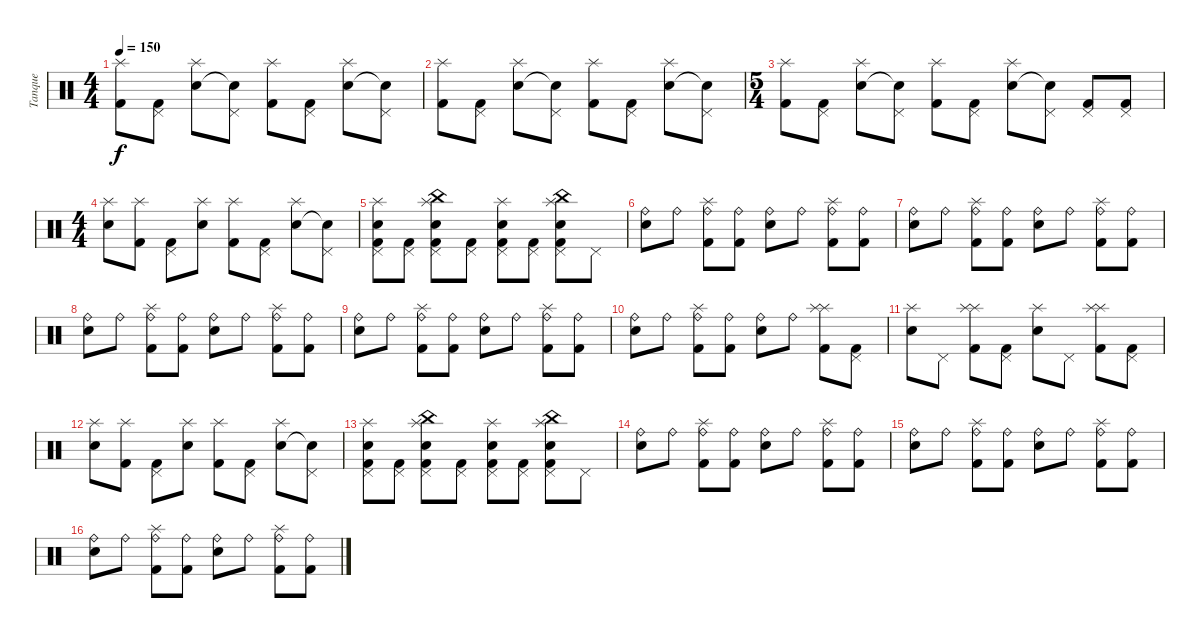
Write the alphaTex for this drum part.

\track ("Tanque" "Tanque") {instrument percussion}
\staff {score}
\articulation defaults
\ts (4 4)
\tempo 150
\clef neutral
\ks c
("Splash (hit)" "Kick (hit) 2").8{dy f} ("Pedal Hi-Hat (hit)" "Kick (hit) 2").8 ("Splash (hit)" "Snare (hit) 2").8 ("Pedal Hi-Hat (hit)" "Snare (hit)"{t}).8 ("Splash (hit)" "Kick (hit) 2").8 ("Pedal Hi-Hat (hit)" "Kick (hit) 2").8 ("Splash (hit)" "Snare (hit) 2").8 ("Pedal Hi-Hat (hit)" "Snare (hit)"{t}).8 |
("Splash (hit)" "Kick (hit) 2").8 ("Pedal Hi-Hat (hit)" "Kick (hit) 2").8 ("Splash (hit)" "Snare (hit) 2").8 ("Pedal Hi-Hat (hit)" "Snare (hit)"{t}).8 ("Splash (hit)" "Kick (hit) 2").8 ("Pedal Hi-Hat (hit)" "Kick (hit) 2").8 ("Splash (hit)" "Snare (hit) 2").8 ("Pedal Hi-Hat (hit)" "Snare (hit)"{t}).8 |
\ts (5 4)
("Splash (hit)" "Kick (hit) 2").8 ("Pedal Hi-Hat (hit)" "Kick (hit) 2").8 ("Splash (hit)" "Snare (hit) 2").8 ("Pedal Hi-Hat (hit)" "Snare (hit)"{t}).8 ("Splash (hit)" "Kick (hit) 2").8 ("Pedal Hi-Hat (hit)" "Kick (hit) 2").8 ("Splash (hit)" "Snare (hit) 2").8 ("Pedal Hi-Hat (hit)" "Snare (hit)"{t}).8 ("Pedal Hi-Hat (hit)" "Kick (hit) 2").8 ("Pedal Hi-Hat (hit)" "Kick (hit) 2").8 |
\ts (4 4)
("Splash (hit)" "Snare (hit) 2").8 ("Splash (hit)" "Kick (hit) 2").8 ("Pedal Hi-Hat (hit)" "Kick (hit) 2").8 ("Splash (hit)" "Snare (hit) 2").8 ("Splash (hit)" "Kick (hit) 2").8 ("Pedal Hi-Hat (hit)" "Kick (hit) 2").8 ("Splash (hit)" "Snare (hit) 2").8 ("Pedal Hi-Hat (hit)" "Snare (hit) 2"{t}).8 |
("Pedal Hi-Hat (hit)" "Kick (hit) 2" "Snare (hit) 2" "Splash (hit)").8 ("Pedal Hi-Hat (hit)" "Kick (hit) 2").8 ("Pedal Hi-Hat (hit)" "Kick (hit) 2" "Snare (hit) 2" "Splash (hit)" "China (hit)").8 ("Pedal Hi-Hat (hit)" "Kick (hit) 2").8 ("Pedal Hi-Hat (hit)" "Kick (hit) 2" "Snare (hit) 2" "Splash (hit)").8 ("Pedal Hi-Hat (hit)" "Kick (hit) 2").8 ("Pedal Hi-Hat (hit)" "Kick (hit) 2" "Snare (hit) 2" "Splash (hit)" "China (hit)").8 "Pedal Hi-Hat (hit)".8 |
("Ride (bell)" "Snare (hit) 2").8 "Ride (bell)".8 ("Ride (bell)" "Kick (hit) 2" "Splash (hit)").8 ("Ride (bell)" "Kick (hit) 2").8 ("Ride (bell)" "Snare (hit) 2").8 "Ride (bell)".8 ("Ride (bell)" "Kick (hit) 2" "Splash (hit)").8 ("Ride (bell)" "Kick (hit) 2").8 |
("Ride (bell)" "Snare (hit) 2").8 "Ride (bell)".8 ("Ride (bell)" "Kick (hit) 2" "Splash (hit)").8 ("Ride (bell)" "Kick (hit) 2").8 ("Ride (bell)" "Snare (hit) 2").8 "Ride (bell)".8 ("Ride (bell)" "Kick (hit) 2" "Splash (hit)").8 ("Ride (bell)" "Kick (hit) 2").8 |
("Ride (bell)" "Snare (hit) 2").8 "Ride (bell)".8 ("Ride (bell)" "Kick (hit) 2" "Splash (hit)").8 ("Ride (bell)" "Kick (hit) 2").8 ("Ride (bell)" "Snare (hit) 2").8 "Ride (bell)".8 ("Ride (bell)" "Kick (hit) 2" "Splash (hit)").8 ("Ride (bell)" "Kick (hit) 2").8 |
("Ride (bell)" "Snare (hit) 2").8 "Ride (bell)".8 ("Ride (bell)" "Kick (hit) 2" "Splash (hit)").8 ("Ride (bell)" "Kick (hit) 2").8 ("Ride (bell)" "Snare (hit) 2").8 "Ride (bell)".8 ("Ride (bell)" "Kick (hit) 2" "Splash (hit)").8 ("Ride (bell)" "Kick (hit) 2").8 |
("Ride (bell)" "Snare (hit) 2").8 "Ride (bell)".8 ("Ride (bell)" "Kick (hit) 2" "Splash (hit)").8 ("Ride (bell)" "Kick (hit) 2").8 ("Ride (bell)" "Snare (hit) 2").8 "Ride (bell)".8 ("Splash (hit)" "Kick (hit) 2" "Splash (hit)").8 ("Pedal Hi-Hat (hit)" "Kick (hit) 2").8 |
("Splash (hit)" "Snare (hit) 2").8 "Pedal Hi-Hat (hit)".8 ("Splash (hit)" "Kick (hit) 2" "Splash (hit)").8 ("Pedal Hi-Hat (hit)" "Kick (hit) 2").8 ("Splash (hit)" "Snare (hit) 2").8 "Pedal Hi-Hat (hit)".8 ("Splash (hit)" "Kick (hit) 2" "Splash (hit)").8 ("Pedal Hi-Hat (hit)" "Kick (hit) 2").8 |
("Splash (hit)" "Snare (hit) 2").8 ("Splash (hit)" "Kick (hit) 2").8 ("Pedal Hi-Hat (hit)" "Kick (hit) 2").8 ("Splash (hit)" "Snare (hit) 2").8 ("Splash (hit)" "Kick (hit) 2").8 ("Pedal Hi-Hat (hit)" "Kick (hit) 2").8 ("Splash (hit)" "Snare (hit) 2").8 ("Pedal Hi-Hat (hit)" "Snare (hit) 2"{t}).8 |
("Pedal Hi-Hat (hit)" "Kick (hit) 2" "Snare (hit) 2" "Splash (hit)").8 ("Pedal Hi-Hat (hit)" "Kick (hit) 2").8 ("Pedal Hi-Hat (hit)" "Kick (hit) 2" "Snare (hit) 2" "Splash (hit)" "China (hit)").8 ("Pedal Hi-Hat (hit)" "Kick (hit) 2").8 ("Pedal Hi-Hat (hit)" "Kick (hit) 2" "Snare (hit) 2" "Splash (hit)").8 ("Pedal Hi-Hat (hit)" "Kick (hit) 2").8 ("Pedal Hi-Hat (hit)" "Kick (hit) 2" "Snare (hit) 2" "Splash (hit)" "China (hit)").8 "Pedal Hi-Hat (hit)".8 |
("Ride (bell)" "Snare (hit) 2").8 "Ride (bell)".8 ("Ride (bell)" "Kick (hit) 2" "Splash (hit)").8 ("Ride (bell)" "Kick (hit) 2").8 ("Ride (bell)" "Snare (hit) 2").8 "Ride (bell)".8 ("Ride (bell)" "Kick (hit) 2" "Splash (hit)").8 ("Ride (bell)" "Kick (hit) 2").8 |
("Ride (bell)" "Snare (hit) 2").8 "Ride (bell)".8 ("Ride (bell)" "Kick (hit) 2" "Splash (hit)").8 ("Ride (bell)" "Kick (hit) 2").8 ("Ride (bell)" "Snare (hit) 2").8 "Ride (bell)".8 ("Ride (bell)" "Kick (hit) 2" "Splash (hit)").8 ("Ride (bell)" "Kick (hit) 2").8 |
("Ride (bell)" "Snare (hit) 2").8 "Ride (bell)".8 ("Ride (bell)" "Kick (hit) 2" "Splash (hit)").8 ("Ride (bell)" "Kick (hit) 2").8 ("Ride (bell)" "Snare (hit) 2").8 "Ride (bell)".8 ("Ride (bell)" "Kick (hit) 2" "Splash (hit)").8 ("Ride (bell)" "Kick (hit) 2").8
